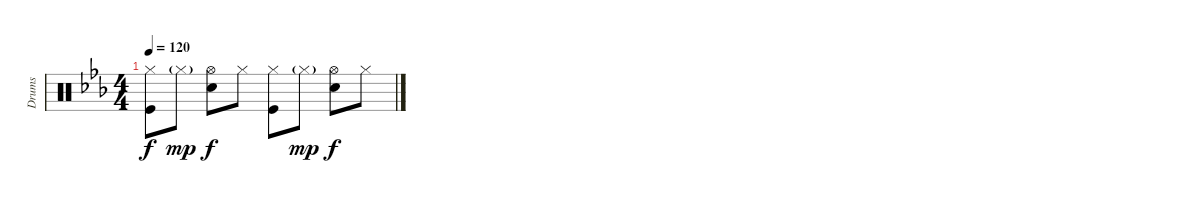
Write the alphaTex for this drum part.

\track ("Drums" "Drums") {instrument percussion}
\staff {score}
\articulation defaults
\ts (4 4)
\tempo 120
\clef neutral
\ks eb
("Hi-Hat (closed)" "Kick (hit)").8{dy f} "Hi-Hat (closed)"{g}.8{dy mp} ("Hi-Hat (open)" "Electric Snare (hit)").8{dy f} "Hi-Hat (closed)".8 ("Hi-Hat (closed)" "Kick (hit)").8 "Hi-Hat (closed)"{g}.8{dy mp} ("Hi-Hat (open)" "Electric Snare (hit)").8{dy f} "Hi-Hat (closed)".8
